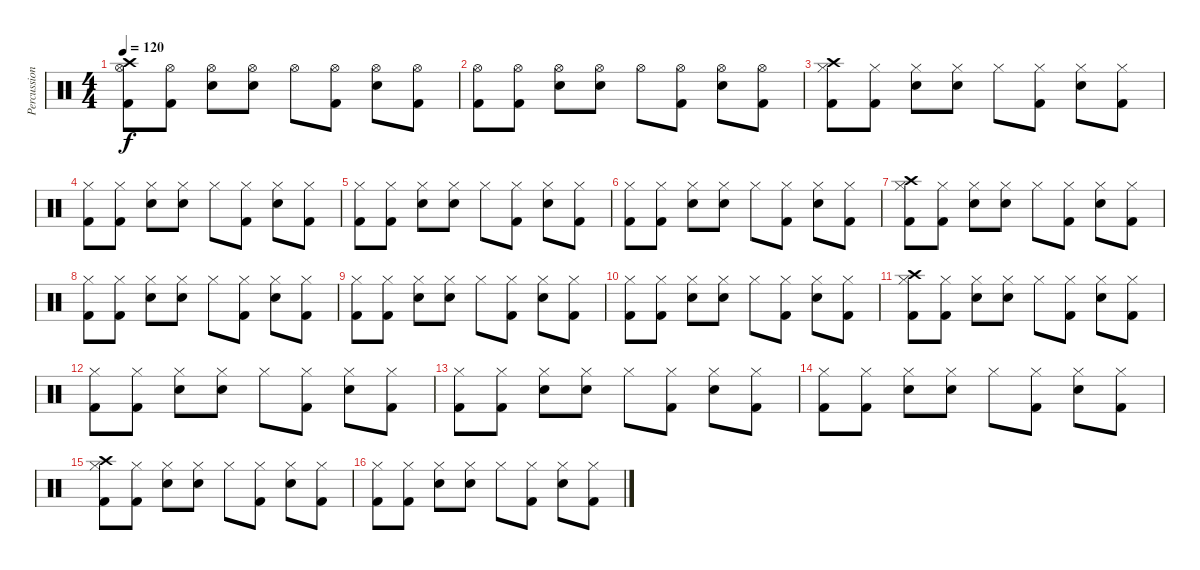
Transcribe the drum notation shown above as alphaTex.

\track ("Percussion" "Percussion") {instrument percussion}
\staff {score}
\articulation defaults
\ts (4 4)
\tempo 120
\clef neutral
\ks c
("Kick (hit) 2" "Hi-Hat (open)" "Crash high (hit)").8{dy f} ("Kick (hit) 2" "Hi-Hat (open)").8 ("Electric Snare (hit)" "Hi-Hat (open)").8 ("Electric Snare (hit)" "Hi-Hat (open)").8 "Hi-Hat (open)".8 ("Kick (hit) 2" "Hi-Hat (open)").8 ("Electric Snare (hit)" "Hi-Hat (open)").8 ("Kick (hit) 2" "Hi-Hat (open)").8 |
("Kick (hit) 2" "Hi-Hat (open)").8 ("Kick (hit) 2" "Hi-Hat (open)").8 ("Electric Snare (hit)" "Hi-Hat (open)").8 ("Electric Snare (hit)" "Hi-Hat (open)").8 "Hi-Hat (open)".8 ("Kick (hit) 2" "Hi-Hat (open)").8 ("Electric Snare (hit)" "Hi-Hat (open)").8 ("Kick (hit) 2" "Hi-Hat (open)").8 |
("Kick (hit) 2" "Hi-Hat (closed)" "Crash high (hit)").8 ("Kick (hit) 2" "Hi-Hat (closed)").8 ("Electric Snare (hit)" "Hi-Hat (closed)").8 ("Electric Snare (hit)" "Hi-Hat (closed)").8 "Hi-Hat (closed)".8 ("Kick (hit) 2" "Hi-Hat (closed)").8 ("Electric Snare (hit)" "Hi-Hat (closed)").8 ("Kick (hit) 2" "Hi-Hat (closed)").8 |
("Kick (hit) 2" "Hi-Hat (closed)").8 ("Kick (hit) 2" "Hi-Hat (closed)").8 ("Electric Snare (hit)" "Hi-Hat (closed)").8 ("Electric Snare (hit)" "Hi-Hat (closed)").8 "Hi-Hat (closed)".8 ("Kick (hit) 2" "Hi-Hat (closed)").8 ("Electric Snare (hit)" "Hi-Hat (closed)").8 ("Kick (hit) 2" "Hi-Hat (closed)").8 |
("Kick (hit) 2" "Hi-Hat (closed)").8 ("Kick (hit) 2" "Hi-Hat (closed)").8 ("Electric Snare (hit)" "Hi-Hat (closed)").8 ("Electric Snare (hit)" "Hi-Hat (closed)").8 "Hi-Hat (closed)".8 ("Kick (hit) 2" "Hi-Hat (closed)").8 ("Electric Snare (hit)" "Hi-Hat (closed)").8 ("Kick (hit) 2" "Hi-Hat (closed)").8 |
("Kick (hit) 2" "Hi-Hat (closed)").8 ("Kick (hit) 2" "Hi-Hat (closed)").8 ("Electric Snare (hit)" "Hi-Hat (closed)").8 ("Electric Snare (hit)" "Hi-Hat (closed)").8 "Hi-Hat (closed)".8 ("Kick (hit) 2" "Hi-Hat (closed)").8 ("Electric Snare (hit)" "Hi-Hat (closed)").8 ("Kick (hit) 2" "Hi-Hat (closed)").8 |
("Kick (hit) 2" "Hi-Hat (closed)" "Crash high (hit)").8 ("Kick (hit) 2" "Hi-Hat (closed)").8 ("Electric Snare (hit)" "Hi-Hat (closed)").8 ("Electric Snare (hit)" "Hi-Hat (closed)").8 "Hi-Hat (closed)".8 ("Kick (hit) 2" "Hi-Hat (closed)").8 ("Electric Snare (hit)" "Hi-Hat (closed)").8 ("Kick (hit) 2" "Hi-Hat (closed)").8 |
("Kick (hit) 2" "Hi-Hat (closed)").8 ("Kick (hit) 2" "Hi-Hat (closed)").8 ("Electric Snare (hit)" "Hi-Hat (closed)").8 ("Electric Snare (hit)" "Hi-Hat (closed)").8 "Hi-Hat (closed)".8 ("Kick (hit) 2" "Hi-Hat (closed)").8 ("Electric Snare (hit)" "Hi-Hat (closed)").8 ("Kick (hit) 2" "Hi-Hat (closed)").8 |
("Kick (hit) 2" "Hi-Hat (closed)").8 ("Kick (hit) 2" "Hi-Hat (closed)").8 ("Electric Snare (hit)" "Hi-Hat (closed)").8 ("Electric Snare (hit)" "Hi-Hat (closed)").8 "Hi-Hat (closed)".8 ("Kick (hit) 2" "Hi-Hat (closed)").8 ("Electric Snare (hit)" "Hi-Hat (closed)").8 ("Kick (hit) 2" "Hi-Hat (closed)").8 |
("Kick (hit) 2" "Hi-Hat (closed)").8 ("Kick (hit) 2" "Hi-Hat (closed)").8 ("Electric Snare (hit)" "Hi-Hat (closed)").8 ("Electric Snare (hit)" "Hi-Hat (closed)").8 "Hi-Hat (closed)".8 ("Kick (hit) 2" "Hi-Hat (closed)").8 ("Electric Snare (hit)" "Hi-Hat (closed)").8 ("Kick (hit) 2" "Hi-Hat (closed)").8 |
("Kick (hit) 2" "Hi-Hat (closed)" "Crash high (hit)").8 ("Kick (hit) 2" "Hi-Hat (closed)").8 ("Electric Snare (hit)" "Hi-Hat (closed)").8 ("Electric Snare (hit)" "Hi-Hat (closed)").8 "Hi-Hat (closed)".8 ("Kick (hit) 2" "Hi-Hat (closed)").8 ("Electric Snare (hit)" "Hi-Hat (closed)").8 ("Kick (hit) 2" "Hi-Hat (closed)").8 |
("Kick (hit) 2" "Hi-Hat (closed)").8 ("Kick (hit) 2" "Hi-Hat (closed)").8 ("Electric Snare (hit)" "Hi-Hat (closed)").8 ("Electric Snare (hit)" "Hi-Hat (closed)").8 "Hi-Hat (closed)".8 ("Kick (hit) 2" "Hi-Hat (closed)").8 ("Electric Snare (hit)" "Hi-Hat (closed)").8 ("Kick (hit) 2" "Hi-Hat (closed)").8 |
("Kick (hit) 2" "Hi-Hat (closed)").8 ("Kick (hit) 2" "Hi-Hat (closed)").8 ("Electric Snare (hit)" "Hi-Hat (closed)").8 ("Electric Snare (hit)" "Hi-Hat (closed)").8 "Hi-Hat (closed)".8 ("Kick (hit) 2" "Hi-Hat (closed)").8 ("Electric Snare (hit)" "Hi-Hat (closed)").8 ("Kick (hit) 2" "Hi-Hat (closed)").8 |
("Kick (hit) 2" "Hi-Hat (closed)").8 ("Kick (hit) 2" "Hi-Hat (closed)").8 ("Electric Snare (hit)" "Hi-Hat (closed)").8 ("Electric Snare (hit)" "Hi-Hat (closed)").8 "Hi-Hat (closed)".8 ("Kick (hit) 2" "Hi-Hat (closed)").8 ("Electric Snare (hit)" "Hi-Hat (closed)").8 ("Kick (hit) 2" "Hi-Hat (closed)").8 |
("Kick (hit) 2" "Hi-Hat (closed)" "Crash high (hit)").8 ("Kick (hit) 2" "Hi-Hat (closed)").8 ("Electric Snare (hit)" "Hi-Hat (closed)").8 ("Electric Snare (hit)" "Hi-Hat (closed)").8 "Hi-Hat (closed)".8 ("Kick (hit) 2" "Hi-Hat (closed)").8 ("Electric Snare (hit)" "Hi-Hat (closed)").8 ("Kick (hit) 2" "Hi-Hat (closed)").8 |
("Kick (hit) 2" "Hi-Hat (closed)").8 ("Kick (hit) 2" "Hi-Hat (closed)").8 ("Electric Snare (hit)" "Hi-Hat (closed)").8 ("Electric Snare (hit)" "Hi-Hat (closed)").8 "Hi-Hat (closed)".8 ("Kick (hit) 2" "Hi-Hat (closed)").8 ("Electric Snare (hit)" "Hi-Hat (closed)").8 ("Kick (hit) 2" "Hi-Hat (closed)").8
